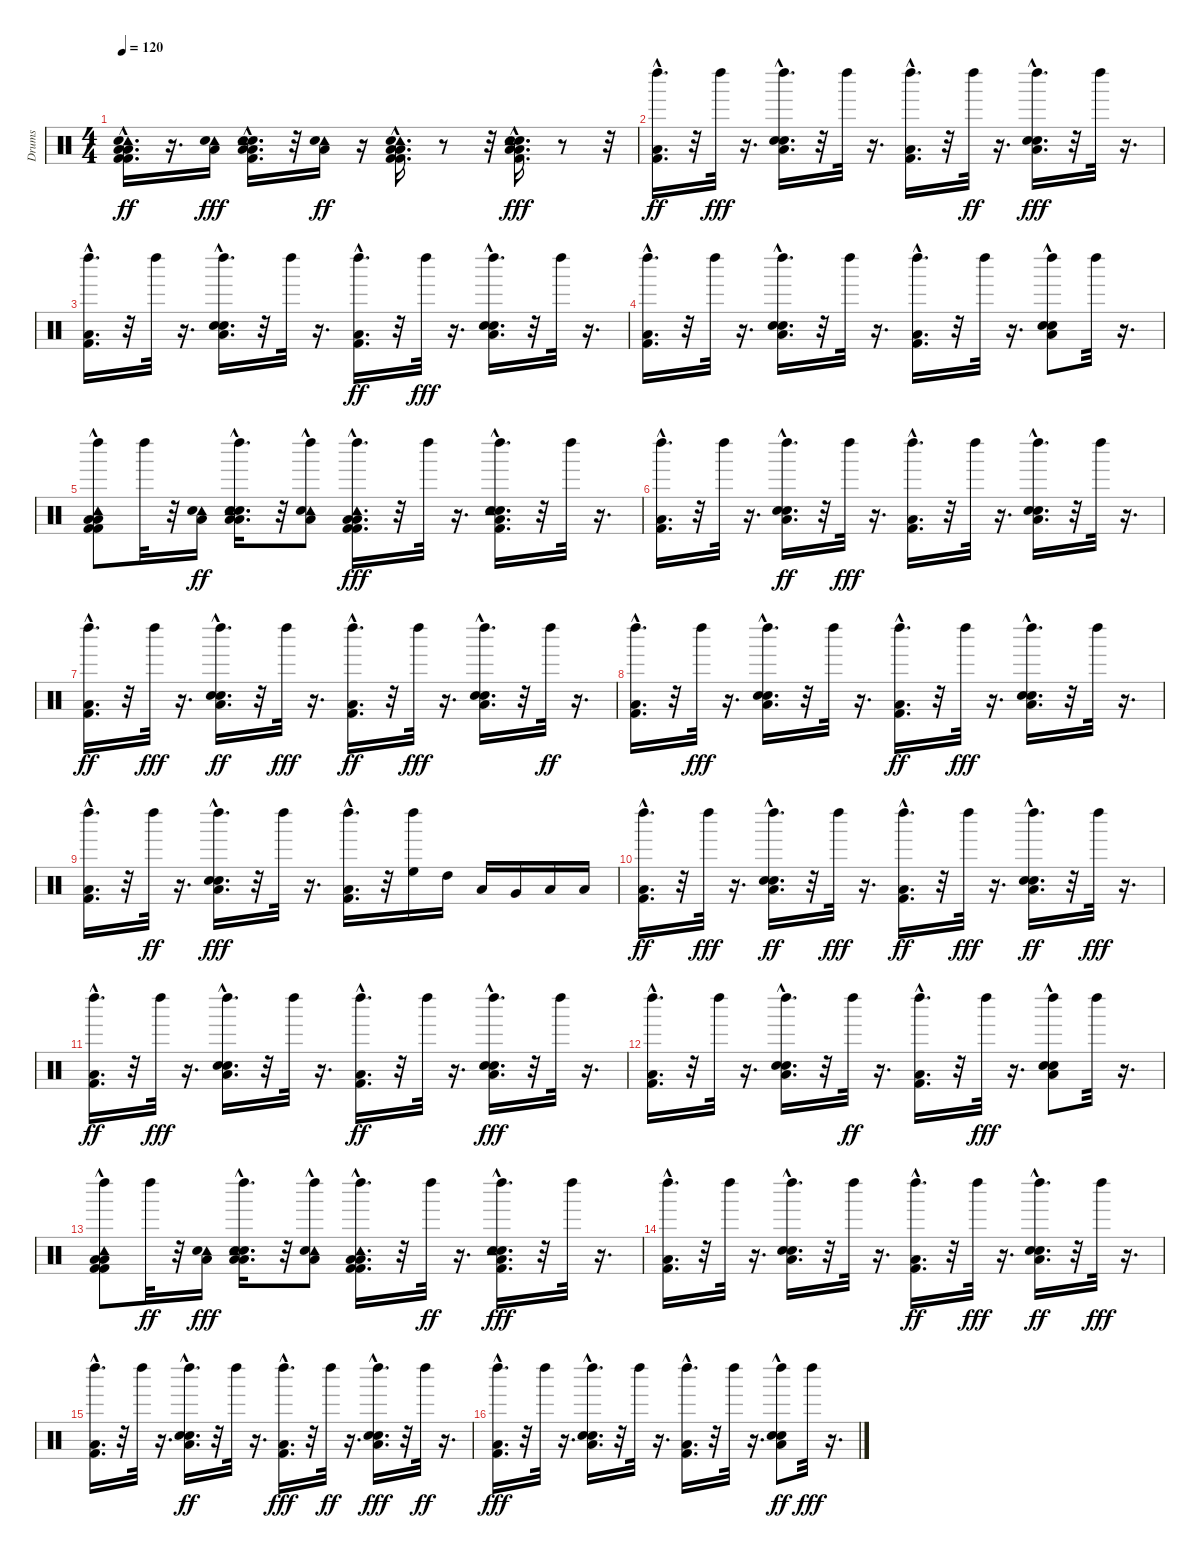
\track ("Drums" "Drums") {instrument percussion}
\staff {score}
\articulation defaults
\ts (4 4)
\tempo 120
\clef neutral
\ks c
("Low Floor Tom (hit)"{hac} "Kick (hit) 2"{hac} "Tambourine (hit)" "Low Floor Tom (hit)"{hac} "Kick (hit) 2"{hac} "Snare (hit) 2"{hac}).16{d dy ff} r.16{d} ("Tambourine (hit)" "Low Floor Tom (hit)" "Snare (hit) 2").16{dy fff} ("Electric Snare (hit)"{hac} "Low Floor Tom (hit)"{hac} "Snare (hit) 2"{hac} "Tambourine (hit)" "Low Floor Tom (hit)"{hac} "Kick (hit) 2").16{d} r.32 ("Tambourine (hit)" "Low Floor Tom (hit)" "Snare (hit) 2").16{dy ff} r.16 ("Low Floor Tom (hit)"{hac} "Kick (hit) 2"{hac} "Tambourine (hit)" "Low Floor Tom (hit)"{hac} "Kick (hit) 2"{hac} "Snare (hit) 2").16{d} r.8 r.32 ("Electric Snare (hit)"{hac} "Low Floor Tom (hit)"{hac} "Snare (hit) 2"{hac} "Tambourine (hit)" "Kick (hit) 2" "Low Floor Tom (hit)"{hac}).16{d dy fff} r.8 r.32 |
("Left Maraca (hit)" "Low Floor Tom (hit)"{hac} "Kick (hit) 2"{hac}).16{d dy ff} r.32 "Left Maraca (hit)".32{dy fff} r.16{d} ("Left Maraca (hit)" "Electric Snare (hit)"{hac} "Low Floor Tom (hit)"{hac} "Snare (hit) 2"{hac}).16{d} r.32 "Left Maraca (hit)".32 r.16{d} ("Left Maraca (hit)" "Low Floor Tom (hit)"{hac} "Kick (hit) 2"{hac}).16{d} r.32 "Left Maraca (hit)".32{dy ff} r.16{d} ("Left Maraca (hit)" "Electric Snare (hit)"{hac} "Low Floor Tom (hit)"{hac} "Snare (hit) 2"{hac}).16{d dy fff} r.32 "Left Maraca (hit)".32 r.16{d} |
("Left Maraca (hit)" "Low Floor Tom (hit)"{hac} "Kick (hit) 2"{hac}).16{d} r.32 "Left Maraca (hit)".32 r.16{d} ("Left Maraca (hit)" "Electric Snare (hit)"{hac} "Low Floor Tom (hit)"{hac} "Snare (hit) 2"{hac}).16{d} r.32 "Left Maraca (hit)".32 r.16{d} ("Left Maraca (hit)" "Low Floor Tom (hit)"{hac} "Kick (hit) 2"{hac}).16{d dy ff} r.32 "Left Maraca (hit)".32{dy fff} r.16{d} ("Left Maraca (hit)" "Electric Snare (hit)"{hac} "Low Floor Tom (hit)"{hac} "Snare (hit) 2"{hac}).16{d} r.32 "Left Maraca (hit)".32 r.16{d} |
("Left Maraca (hit)" "Low Floor Tom (hit)"{hac} "Kick (hit) 2"{hac}).16{d} r.32 "Left Maraca (hit)".32 r.16{d} ("Left Maraca (hit)" "Electric Snare (hit)"{hac} "Low Floor Tom (hit)"{hac} "Snare (hit) 2"{hac}).16{d} r.32 "Left Maraca (hit)".32 r.16{d} ("Left Maraca (hit)" "Low Floor Tom (hit)"{hac} "Kick (hit) 2"{hac}).16{d} r.32 "Left Maraca (hit)".32 r.16{d} ("Left Maraca (hit)" "Electric Snare (hit)"{hac} "Low Floor Tom (hit)"{hac} "Snare (hit) 2").8 "Left Maraca (hit)".32 r.16{d} |
("Left Maraca (hit)" "Low Floor Tom (hit)"{hac} "Kick (hit) 2" "Tambourine (hit)" "Low Floor Tom (hit)"{hac} "Kick (hit) 2").8 "Left Maraca (hit)".32 r.32 ("Tambourine (hit)" "Low Floor Tom (hit)" "Snare (hit) 2").16{dy ff} ("Left Maraca (hit)" "Electric Snare (hit)"{hac} "Low Floor Tom (hit)"{hac} "Snare (hit) 2"{hac} "Tambourine (hit)" "Low Floor Tom (hit)"{hac}).16{d} r.32 ("Left Maraca (hit)" "Tambourine (hit)" "Low Floor Tom (hit)" "Snare (hit) 2"{hac}).8 ("Left Maraca (hit)" "Low Floor Tom (hit)"{hac} "Kick (hit) 2"{hac} "Tambourine (hit)" "Low Floor Tom (hit)"{hac} "Kick (hit) 2"{hac}).16{d dy fff} r.32 "Left Maraca (hit)".32 r.16{d} ("Left Maraca (hit)" "Electric Snare (hit)"{hac} "Low Floor Tom (hit)"{hac} "Snare (hit) 2"{hac} "Tambourine (hit)" "Kick (hit) 2").16{d} r.32 "Left Maraca (hit)".32 r.16{d} |
("Left Maraca (hit)" "Low Floor Tom (hit)"{hac} "Kick (hit) 2"{hac}).16{d} r.32 "Left Maraca (hit)".32 r.16{d} ("Left Maraca (hit)" "Electric Snare (hit)"{hac} "Low Floor Tom (hit)"{hac} "Snare (hit) 2"{hac}).16{d dy ff} r.32 "Left Maraca (hit)".32{dy fff} r.16{d} ("Left Maraca (hit)" "Low Floor Tom (hit)"{hac} "Kick (hit) 2"{hac}).16{d} r.32 "Left Maraca (hit)".32 r.16{d} ("Left Maraca (hit)" "Electric Snare (hit)"{hac} "Low Floor Tom (hit)"{hac} "Snare (hit) 2"{hac}).16{d} r.32 "Left Maraca (hit)".32 r.16{d} |
("Left Maraca (hit)" "Low Floor Tom (hit)"{hac} "Kick (hit) 2"{hac}).16{d dy ff} r.32 "Left Maraca (hit)".32{dy fff} r.16{d} ("Left Maraca (hit)" "Electric Snare (hit)"{hac} "Low Floor Tom (hit)"{hac} "Snare (hit) 2"{hac}).16{d dy ff} r.32 "Left Maraca (hit)".32{dy fff} r.16{d} ("Left Maraca (hit)" "Low Floor Tom (hit)"{hac} "Kick (hit) 2"{hac}).16{d dy ff} r.32 "Left Maraca (hit)".32{dy fff} r.16{d} ("Left Maraca (hit)" "Electric Snare (hit)"{hac} "Low Floor Tom (hit)"{hac} "Snare (hit) 2"{hac}).16{d} r.32 "Left Maraca (hit)".32{dy ff} r.16{d} |
("Left Maraca (hit)" "Low Floor Tom (hit)"{hac} "Kick (hit) 2"{hac}).16{d} r.32 "Left Maraca (hit)".32{dy fff} r.16{d} ("Left Maraca (hit)" "Electric Snare (hit)"{hac} "Low Floor Tom (hit)"{hac} "Snare (hit) 2"{hac}).16{d} r.32 "Left Maraca (hit)".32 r.16{d} ("Left Maraca (hit)" "Low Floor Tom (hit)"{hac} "Kick (hit) 2"{hac}).16{d dy ff} r.32 "Left Maraca (hit)".32{dy fff} r.16{d} ("Left Maraca (hit)" "Electric Snare (hit)"{hac} "Low Floor Tom (hit)"{hac} "Snare (hit) 2"{hac}).16{d} r.32 "Left Maraca (hit)".32 r.16{d} |
("Left Maraca (hit)" "Low Floor Tom (hit)"{hac} "Kick (hit) 2"{hac}).16{d} r.32 "Left Maraca (hit)".32{dy ff} r.16{d} ("Left Maraca (hit)" "Electric Snare (hit)"{hac} "Low Floor Tom (hit)"{hac} "Snare (hit) 2"{hac}).16{d dy fff} r.32 "Left Maraca (hit)".32 r.16{d} ("Left Maraca (hit)" "Low Floor Tom (hit)"{hac} "Kick (hit) 2"{hac}).16{d} r.32 ("High Floor Tom (hit)" "Left Maraca (hit)").16 "High Tom (hit)".16 "Low Tom (hit)".16 "Very Low Tom (hit)".16 "Low Floor Tom (hit)".16 "Low Floor Tom (hit)".16 |
("Left Maraca (hit)" "Low Floor Tom (hit)"{hac} "Kick (hit) 2"{hac}).16{d dy ff} r.32 "Left Maraca (hit)".32{dy fff} r.16{d} ("Left Maraca (hit)" "Electric Snare (hit)"{hac} "Low Floor Tom (hit)"{hac} "Snare (hit) 2"{hac}).16{d dy ff} r.32 "Left Maraca (hit)".32{dy fff} r.16{d} ("Left Maraca (hit)" "Low Floor Tom (hit)"{hac} "Kick (hit) 2"{hac}).16{d dy ff} r.32 "Left Maraca (hit)".32{dy fff} r.16{d} ("Left Maraca (hit)" "Electric Snare (hit)"{hac} "Low Floor Tom (hit)"{hac} "Snare (hit) 2"{hac}).16{d dy ff} r.32 "Left Maraca (hit)".32{dy fff} r.16{d} |
("Left Maraca (hit)" "Low Floor Tom (hit)"{hac} "Kick (hit) 2"{hac}).16{d dy ff} r.32 "Left Maraca (hit)".32{dy fff} r.16{d} ("Left Maraca (hit)" "Electric Snare (hit)"{hac} "Low Floor Tom (hit)"{hac} "Snare (hit) 2"{hac}).16{d} r.32 "Left Maraca (hit)".32 r.16{d} ("Left Maraca (hit)" "Low Floor Tom (hit)"{hac} "Kick (hit) 2"{hac}).16{d dy ff} r.32 "Left Maraca (hit)".32 r.16{d} ("Left Maraca (hit)" "Electric Snare (hit)"{hac} "Low Floor Tom (hit)"{hac} "Snare (hit) 2"{hac}).16{d dy fff} r.32 "Left Maraca (hit)".32 r.16{d} |
("Left Maraca (hit)" "Low Floor Tom (hit)"{hac} "Kick (hit) 2"{hac}).16{d} r.32 "Left Maraca (hit)".32 r.16{d} ("Left Maraca (hit)" "Electric Snare (hit)"{hac} "Low Floor Tom (hit)"{hac} "Snare (hit) 2"{hac}).16{d} r.32 "Left Maraca (hit)".32{dy ff} r.16{d} ("Left Maraca (hit)" "Low Floor Tom (hit)"{hac} "Kick (hit) 2"{hac}).16{d} r.32 "Left Maraca (hit)".32{dy fff} r.16{d} ("Left Maraca (hit)" "Electric Snare (hit)"{hac} "Low Floor Tom (hit)"{hac} "Snare (hit) 2").8 "Left Maraca (hit)".32 r.16{d} |
("Left Maraca (hit)" "Low Floor Tom (hit)"{hac} "Kick (hit) 2" "Tambourine (hit)" "Low Floor Tom (hit)"{hac} "Kick (hit) 2").8 "Left Maraca (hit)".32{dy ff} r.32 ("Tambourine (hit)" "Low Floor Tom (hit)" "Snare (hit) 2").16{dy fff} ("Left Maraca (hit)" "Electric Snare (hit)"{hac} "Low Floor Tom (hit)"{hac} "Snare (hit) 2"{hac} "Tambourine (hit)" "Low Floor Tom (hit)"{hac}).16{d} r.32 ("Left Maraca (hit)" "Tambourine (hit)" "Low Floor Tom (hit)" "Snare (hit) 2"{hac}).8 ("Left Maraca (hit)" "Low Floor Tom (hit)"{hac} "Kick (hit) 2"{hac} "Tambourine (hit)" "Low Floor Tom (hit)"{hac} "Kick (hit) 2"{hac}).16{d} r.32 "Left Maraca (hit)".32{dy ff} r.16{d} ("Left Maraca (hit)" "Electric Snare (hit)"{hac} "Low Floor Tom (hit)"{hac} "Snare (hit) 2"{hac} "Tambourine (hit)" "Kick (hit) 2").16{d dy fff} r.32 "Left Maraca (hit)".32 r.16{d} |
("Left Maraca (hit)" "Low Floor Tom (hit)"{hac} "Kick (hit) 2"{hac}).16{d} r.32 "Left Maraca (hit)".32 r.16{d} ("Left Maraca (hit)" "Electric Snare (hit)"{hac} "Low Floor Tom (hit)"{hac} "Snare (hit) 2"{hac}).16{d} r.32 "Left Maraca (hit)".32 r.16{d} ("Left Maraca (hit)" "Low Floor Tom (hit)"{hac} "Kick (hit) 2"{hac}).16{d dy ff} r.32 "Left Maraca (hit)".32{dy fff} r.16{d} ("Left Maraca (hit)" "Electric Snare (hit)"{hac} "Low Floor Tom (hit)"{hac} "Snare (hit) 2"{hac}).16{d dy ff} r.32 "Left Maraca (hit)".32{dy fff} r.16{d} |
("Left Maraca (hit)" "Low Floor Tom (hit)"{hac} "Kick (hit) 2"{hac}).16{d} r.32 "Left Maraca (hit)".32 r.16{d} ("Left Maraca (hit)" "Electric Snare (hit)"{hac} "Low Floor Tom (hit)"{hac} "Snare (hit) 2"{hac}).16{d dy ff} r.32 "Left Maraca (hit)".32 r.16{d} ("Left Maraca (hit)" "Low Floor Tom (hit)"{hac} "Kick (hit) 2"{hac}).16{d dy fff} r.32 "Left Maraca (hit)".32{dy ff} r.16{d} ("Left Maraca (hit)" "Electric Snare (hit)"{hac} "Low Floor Tom (hit)"{hac} "Snare (hit) 2"{hac}).16{d dy fff} r.32 "Left Maraca (hit)".32{dy ff} r.16{d} |
("Left Maraca (hit)" "Low Floor Tom (hit)"{hac} "Kick (hit) 2"{hac}).16{d dy fff} r.32 "Left Maraca (hit)".32 r.16{d} ("Left Maraca (hit)" "Electric Snare (hit)"{hac} "Low Floor Tom (hit)"{hac} "Snare (hit) 2"{hac}).16{d} r.32 "Left Maraca (hit)".32 r.16{d} ("Left Maraca (hit)" "Low Floor Tom (hit)"{hac} "Kick (hit) 2"{hac}).16{d} r.32 "Left Maraca (hit)".32 r.16{d} ("Left Maraca (hit)" "Electric Snare (hit)"{hac} "Low Floor Tom (hit)"{hac} "Snare (hit) 2").8{dy ff} "Left Maraca (hit)".32{dy fff} r.16{d}
